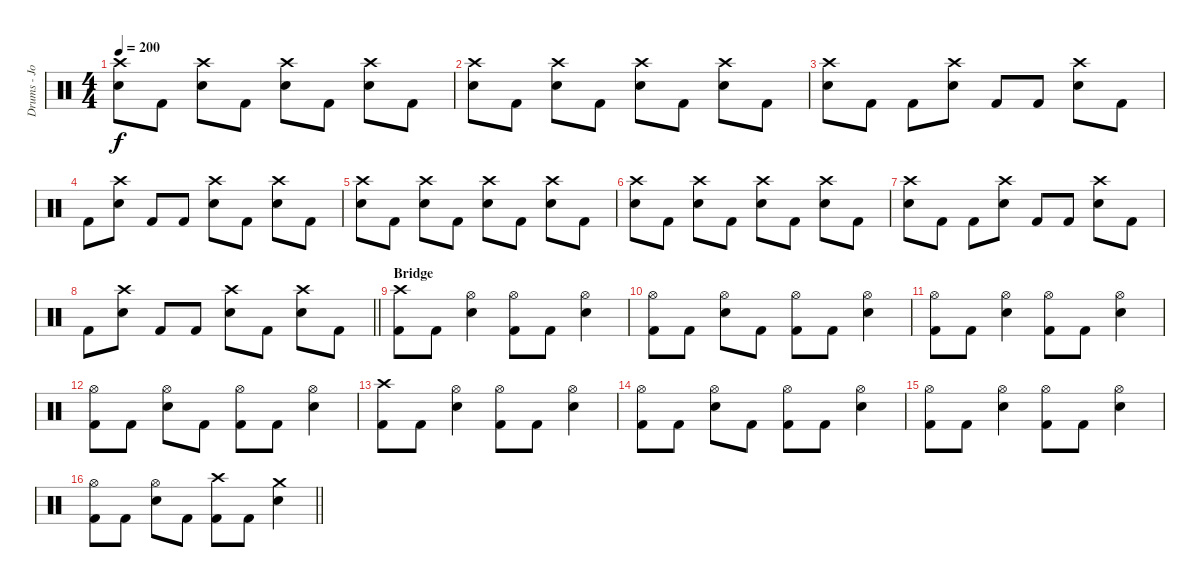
\track ("Drums - John" "Drums - Jo") {instrument percussion}
\staff {score}
\articulation defaults
\ts (4 4)
\tempo 200
\clef neutral
\ks c
("Crash high (hit)" "Electric Snare (hit)").8{dy f} "Kick (hit) 2".8 ("Crash high (hit)" "Electric Snare (hit)").8 "Kick (hit) 2".8 ("Crash high (hit)" "Electric Snare (hit)").8 "Kick (hit) 2".8 ("Crash high (hit)" "Electric Snare (hit)").8 "Kick (hit) 2".8 |
("Crash high (hit)" "Electric Snare (hit)").8 "Kick (hit) 2".8 ("Crash high (hit)" "Electric Snare (hit)").8 "Kick (hit) 2".8 ("Crash high (hit)" "Electric Snare (hit)").8 "Kick (hit) 2".8 ("Crash high (hit)" "Electric Snare (hit)").8 "Kick (hit) 2".8 |
("Crash high (hit)" "Electric Snare (hit)").8 "Kick (hit) 2".8 "Kick (hit) 2".8 ("Crash high (hit)" "Electric Snare (hit)").8 "Kick (hit) 2".8 "Kick (hit) 2".8 ("Crash high (hit)" "Electric Snare (hit)").8 "Kick (hit) 2".8 |
"Kick (hit) 2".8 ("Crash high (hit)" "Electric Snare (hit)").8 "Kick (hit) 2".8 "Kick (hit) 2".8 ("Crash high (hit)" "Electric Snare (hit)").8 "Kick (hit) 2".8 ("Crash high (hit)" "Electric Snare (hit)").8 "Kick (hit) 2".8 |
("Crash high (hit)" "Electric Snare (hit)").8 "Kick (hit) 2".8 ("Crash high (hit)" "Electric Snare (hit)").8 "Kick (hit) 2".8 ("Crash high (hit)" "Electric Snare (hit)").8 "Kick (hit) 2".8 ("Crash high (hit)" "Electric Snare (hit)").8 "Kick (hit) 2".8 |
("Crash high (hit)" "Electric Snare (hit)").8 "Kick (hit) 2".8 ("Crash high (hit)" "Electric Snare (hit)").8 "Kick (hit) 2".8 ("Crash high (hit)" "Electric Snare (hit)").8 "Kick (hit) 2".8 ("Crash high (hit)" "Electric Snare (hit)").8 "Kick (hit) 2".8 |
("Crash high (hit)" "Electric Snare (hit)").8 "Kick (hit) 2".8 "Kick (hit) 2".8 ("Crash high (hit)" "Electric Snare (hit)").8 "Kick (hit) 2".8 "Kick (hit) 2".8 ("Crash high (hit)" "Electric Snare (hit)").8 "Kick (hit) 2".8 |
\barLineRight lightlight "Kick (hit) 2".8
("Crash high (hit)" "Electric Snare (hit)").8 "Kick (hit) 2".8 "Kick (hit) 2".8 ("Crash high (hit)" "Electric Snare (hit)").8 "Kick (hit) 2".8 ("Crash high (hit)" "Electric Snare (hit)").8 "Kick (hit) 2".8 |
\section ("" "Bridge")
("Crash high (hit)" "Kick (hit) 2").8 "Kick (hit) 2".8 ("Electric Snare (hit)" "Hi-Hat (open)").4 ("Kick (hit) 2" "Hi-Hat (open)").8 "Kick (hit) 2".8 ("Electric Snare (hit)" "Hi-Hat (open)").4 |
("Kick (hit) 2" "Hi-Hat (open)").8 "Kick (hit) 2".8 ("Electric Snare (hit)" "Hi-Hat (open)").8 "Kick (hit) 2".8 ("Kick (hit) 2" "Hi-Hat (open)").8 "Kick (hit) 2".8 ("Electric Snare (hit)" "Hi-Hat (open)").4 |
("Kick (hit) 2" "Hi-Hat (open)").8 "Kick (hit) 2".8 ("Electric Snare (hit)" "Hi-Hat (open)").4 ("Kick (hit) 2" "Hi-Hat (open)").8 "Kick (hit) 2".8 ("Electric Snare (hit)" "Hi-Hat (open)").4 |
("Kick (hit) 2" "Hi-Hat (open)").8 "Kick (hit) 2".8 ("Electric Snare (hit)" "Hi-Hat (open)").8 "Kick (hit) 2".8 ("Kick (hit) 2" "Hi-Hat (open)").8 "Kick (hit) 2".8 ("Electric Snare (hit)" "Hi-Hat (open)").4 |
("Crash high (hit)" "Kick (hit) 2").8 "Kick (hit) 2".8 ("Electric Snare (hit)" "Hi-Hat (open)").4 ("Kick (hit) 2" "Hi-Hat (open)").8 "Kick (hit) 2".8 ("Electric Snare (hit)" "Hi-Hat (open)").4 |
("Kick (hit) 2" "Hi-Hat (open)").8 "Kick (hit) 2".8 ("Electric Snare (hit)" "Hi-Hat (open)").8 "Kick (hit) 2".8 ("Kick (hit) 2" "Hi-Hat (open)").8 "Kick (hit) 2".8 ("Electric Snare (hit)" "Hi-Hat (open)").4 |
("Kick (hit) 2" "Hi-Hat (open)").8 "Kick (hit) 2".8 ("Electric Snare (hit)" "Hi-Hat (open)").4 ("Kick (hit) 2" "Hi-Hat (open)").8 "Kick (hit) 2".8 ("Electric Snare (hit)" "Hi-Hat (open)").4 |
\barLineRight lightlight
("Kick (hit) 2" "Hi-Hat (open)").8 "Kick (hit) 2".8 ("Electric Snare (hit)" "Hi-Hat (open)").8 "Kick (hit) 2".8 ("Crash high (hit)" "Kick (hit) 2").8 "Kick (hit) 2".8 ("Crash medium (hit)" "Electric Snare (hit)").4
